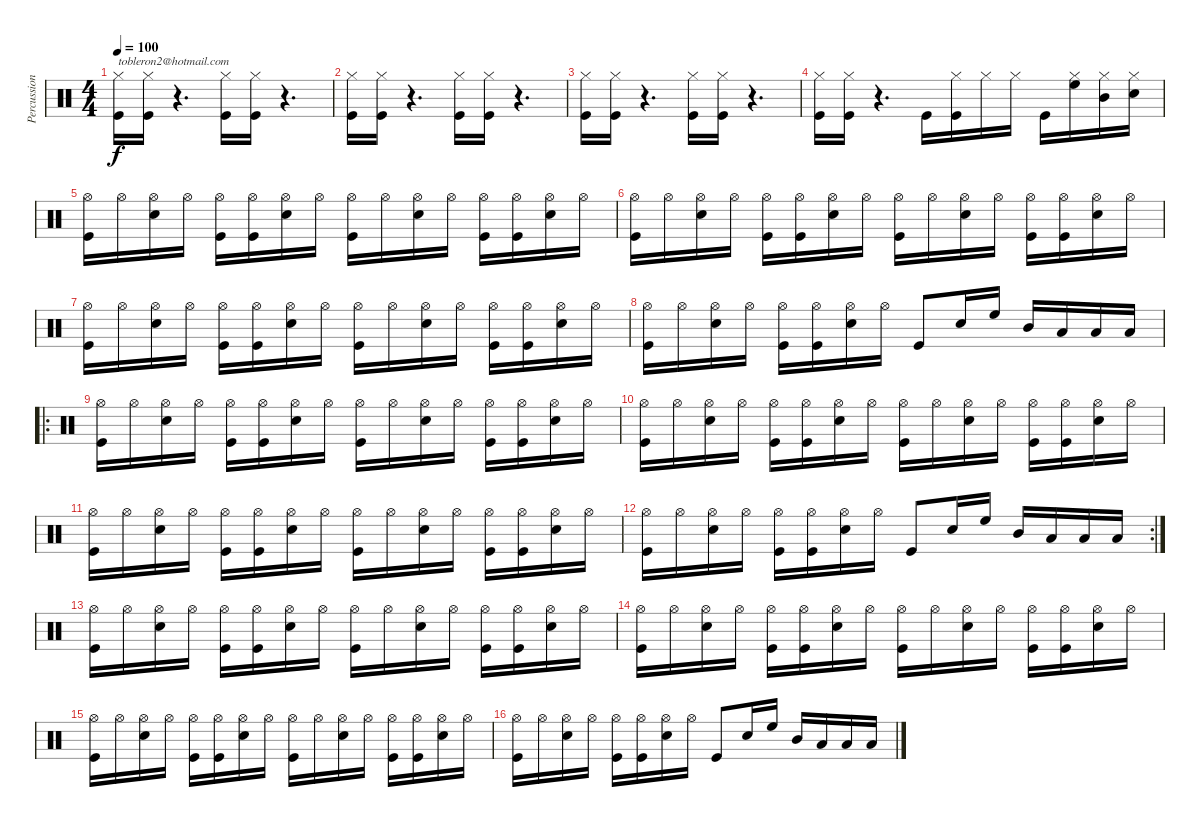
\track ("Percussions" "Percussion") {instrument percussion}
\staff {score}
\articulation defaults
\ts (4 4)
\tempo 100
\clef neutral
\ks c
("Kick (hit)" "Hi-Hat (closed)").16{txt "tobleron2@hotmail.com" dy f} ("Kick (hit)" "Hi-Hat (closed)").16 r.4{d} ("Kick (hit)" "Hi-Hat (closed)").16 ("Kick (hit)" "Hi-Hat (closed)").16 r.4{d} |
("Kick (hit)" "Hi-Hat (closed)").16 ("Kick (hit)" "Hi-Hat (closed)").16 r.4{d} ("Kick (hit)" "Hi-Hat (closed)").16 ("Kick (hit)" "Hi-Hat (closed)").16 r.4{d} |
("Kick (hit)" "Hi-Hat (closed)").16 ("Kick (hit)" "Hi-Hat (closed)").16 r.4{d} ("Kick (hit)" "Hi-Hat (closed)").16 ("Kick (hit)" "Hi-Hat (closed)").16 r.4{d} |
("Kick (hit)" "Hi-Hat (closed)").16 ("Kick (hit)" "Hi-Hat (closed)").16 r.4{d} "Kick (hit)".16 ("Kick (hit)" "Hi-Hat (closed)").16 "Hi-Hat (closed)".16 "Hi-Hat (closed)".16 "Kick (hit)".16 ("High Floor Tom (hit)" "Hi-Hat (closed)").16 ("Mid Tom (hit)" "Hi-Hat (closed)").16 ("Snare (hit) 2" "Hi-Hat (closed)").16 |
("Hi-Hat (open)" "Kick (hit)").16 "Hi-Hat (open)".16 ("Hi-Hat (open)" "Snare (hit) 2").16 "Hi-Hat (open)".16 ("Hi-Hat (open)" "Kick (hit)").16 ("Hi-Hat (open)" "Kick (hit)").16 ("Hi-Hat (open)" "Snare (hit) 2").16 "Hi-Hat (open)".16 ("Hi-Hat (open)" "Kick (hit)").16 "Hi-Hat (open)".16 ("Hi-Hat (open)" "Snare (hit) 2").16 "Hi-Hat (open)".16 ("Hi-Hat (open)" "Kick (hit)").16 ("Hi-Hat (open)" "Kick (hit)").16 ("Hi-Hat (open)" "Snare (hit) 2").16 "Hi-Hat (open)".16 |
("Hi-Hat (open)" "Kick (hit)").16 "Hi-Hat (open)".16 ("Hi-Hat (open)" "Snare (hit) 2").16 "Hi-Hat (open)".16 ("Hi-Hat (open)" "Kick (hit)").16 ("Hi-Hat (open)" "Kick (hit)").16 ("Hi-Hat (open)" "Snare (hit) 2").16 "Hi-Hat (open)".16 ("Hi-Hat (open)" "Kick (hit)").16 "Hi-Hat (open)".16 ("Hi-Hat (open)" "Snare (hit) 2").16 "Hi-Hat (open)".16 ("Hi-Hat (open)" "Kick (hit)").16 ("Hi-Hat (open)" "Kick (hit)").16 ("Hi-Hat (open)" "Snare (hit) 2").16 "Hi-Hat (open)".16 |
("Hi-Hat (open)" "Kick (hit)").16 "Hi-Hat (open)".16 ("Hi-Hat (open)" "Snare (hit) 2").16 "Hi-Hat (open)".16 ("Hi-Hat (open)" "Kick (hit)").16 ("Hi-Hat (open)" "Kick (hit)").16 ("Hi-Hat (open)" "Snare (hit) 2").16 "Hi-Hat (open)".16 ("Hi-Hat (open)" "Kick (hit)").16 "Hi-Hat (open)".16 ("Hi-Hat (open)" "Snare (hit) 2").16 "Hi-Hat (open)".16 ("Hi-Hat (open)" "Kick (hit)").16 ("Hi-Hat (open)" "Kick (hit)").16 ("Hi-Hat (open)" "Snare (hit) 2").16 "Hi-Hat (open)".16 |
("Hi-Hat (open)" "Kick (hit)").16 "Hi-Hat (open)".16 ("Hi-Hat (open)" "Snare (hit) 2").16 "Hi-Hat (open)".16 ("Hi-Hat (open)" "Kick (hit)").16 ("Hi-Hat (open)" "Kick (hit)").16 ("Hi-Hat (open)" "Snare (hit) 2").16 "Hi-Hat (open)".16 "Kick (hit)".8 "Snare (hit) 2".16 "High Floor Tom (hit)".16 "Mid Tom (hit)".16 "Low Tom (hit)".16 "Low Floor Tom (hit)".16 "Low Tom (hit)".16 |
\ro
("Hi-Hat (open)" "Kick (hit)").16 "Hi-Hat (open)".16 ("Hi-Hat (open)" "Snare (hit) 2").16 "Hi-Hat (open)".16 ("Hi-Hat (open)" "Kick (hit)").16 ("Hi-Hat (open)" "Kick (hit)").16 ("Hi-Hat (open)" "Snare (hit) 2").16 "Hi-Hat (open)".16 ("Hi-Hat (open)" "Kick (hit)").16 "Hi-Hat (open)".16 ("Hi-Hat (open)" "Snare (hit) 2").16 "Hi-Hat (open)".16 ("Hi-Hat (open)" "Kick (hit)").16 ("Hi-Hat (open)" "Kick (hit)").16 ("Hi-Hat (open)" "Snare (hit) 2").16 "Hi-Hat (open)".16 |
("Hi-Hat (open)" "Kick (hit)").16 "Hi-Hat (open)".16 ("Hi-Hat (open)" "Snare (hit) 2").16 "Hi-Hat (open)".16 ("Hi-Hat (open)" "Kick (hit)").16 ("Hi-Hat (open)" "Kick (hit)").16 ("Hi-Hat (open)" "Snare (hit) 2").16 "Hi-Hat (open)".16 ("Hi-Hat (open)" "Kick (hit)").16 "Hi-Hat (open)".16 ("Hi-Hat (open)" "Snare (hit) 2").16 "Hi-Hat (open)".16 ("Hi-Hat (open)" "Kick (hit)").16 ("Hi-Hat (open)" "Kick (hit)").16 ("Hi-Hat (open)" "Snare (hit) 2").16 "Hi-Hat (open)".16 |
("Hi-Hat (open)" "Kick (hit)").16 "Hi-Hat (open)".16 ("Hi-Hat (open)" "Snare (hit) 2").16 "Hi-Hat (open)".16 ("Hi-Hat (open)" "Kick (hit)").16 ("Hi-Hat (open)" "Kick (hit)").16 ("Hi-Hat (open)" "Snare (hit) 2").16 "Hi-Hat (open)".16 ("Hi-Hat (open)" "Kick (hit)").16 "Hi-Hat (open)".16 ("Hi-Hat (open)" "Snare (hit) 2").16 "Hi-Hat (open)".16 ("Hi-Hat (open)" "Kick (hit)").16 ("Hi-Hat (open)" "Kick (hit)").16 ("Hi-Hat (open)" "Snare (hit) 2").16 "Hi-Hat (open)".16 |
\rc 2
("Hi-Hat (open)" "Kick (hit)").16 "Hi-Hat (open)".16 ("Hi-Hat (open)" "Snare (hit) 2").16 "Hi-Hat (open)".16 ("Hi-Hat (open)" "Kick (hit)").16 ("Hi-Hat (open)" "Kick (hit)").16 ("Hi-Hat (open)" "Snare (hit) 2").16 "Hi-Hat (open)".16 "Kick (hit)".8 "Snare (hit) 2".16 "High Floor Tom (hit)".16 "Mid Tom (hit)".16 "Low Tom (hit)".16 "Low Floor Tom (hit)".16 "Low Tom (hit)".16 |
("Hi-Hat (open)" "Kick (hit)").16 "Hi-Hat (open)".16 ("Hi-Hat (open)" "Snare (hit) 2").16 "Hi-Hat (open)".16 ("Hi-Hat (open)" "Kick (hit)").16 ("Hi-Hat (open)" "Kick (hit)").16 ("Hi-Hat (open)" "Snare (hit) 2").16 "Hi-Hat (open)".16 ("Hi-Hat (open)" "Kick (hit)").16 "Hi-Hat (open)".16 ("Hi-Hat (open)" "Snare (hit) 2").16 "Hi-Hat (open)".16 ("Hi-Hat (open)" "Kick (hit)").16 ("Hi-Hat (open)" "Kick (hit)").16 ("Hi-Hat (open)" "Snare (hit) 2").16 "Hi-Hat (open)".16 |
("Hi-Hat (open)" "Kick (hit)").16 "Hi-Hat (open)".16 ("Hi-Hat (open)" "Snare (hit) 2").16 "Hi-Hat (open)".16 ("Hi-Hat (open)" "Kick (hit)").16 ("Hi-Hat (open)" "Kick (hit)").16 ("Hi-Hat (open)" "Snare (hit) 2").16 "Hi-Hat (open)".16 ("Hi-Hat (open)" "Kick (hit)").16 "Hi-Hat (open)".16 ("Hi-Hat (open)" "Snare (hit) 2").16 "Hi-Hat (open)".16 ("Hi-Hat (open)" "Kick (hit)").16 ("Hi-Hat (open)" "Kick (hit)").16 ("Hi-Hat (open)" "Snare (hit) 2").16 "Hi-Hat (open)".16 |
("Hi-Hat (open)" "Kick (hit)").16 "Hi-Hat (open)".16 ("Hi-Hat (open)" "Snare (hit) 2").16 "Hi-Hat (open)".16 ("Hi-Hat (open)" "Kick (hit)").16 ("Hi-Hat (open)" "Kick (hit)").16 ("Hi-Hat (open)" "Snare (hit) 2").16 "Hi-Hat (open)".16 ("Hi-Hat (open)" "Kick (hit)").16 "Hi-Hat (open)".16 ("Hi-Hat (open)" "Snare (hit) 2").16 "Hi-Hat (open)".16 ("Hi-Hat (open)" "Kick (hit)").16 ("Hi-Hat (open)" "Kick (hit)").16 ("Hi-Hat (open)" "Snare (hit) 2").16 "Hi-Hat (open)".16 |
("Hi-Hat (open)" "Kick (hit)").16 "Hi-Hat (open)".16 ("Hi-Hat (open)" "Snare (hit) 2").16 "Hi-Hat (open)".16 ("Hi-Hat (open)" "Kick (hit)").16 ("Hi-Hat (open)" "Kick (hit)").16 ("Hi-Hat (open)" "Snare (hit) 2").16 "Hi-Hat (open)".16 "Kick (hit)".8 "Snare (hit) 2".16 "High Floor Tom (hit)".16 "Mid Tom (hit)".16 "Low Tom (hit)".16 "Low Floor Tom (hit)".16 "Low Tom (hit)".16
